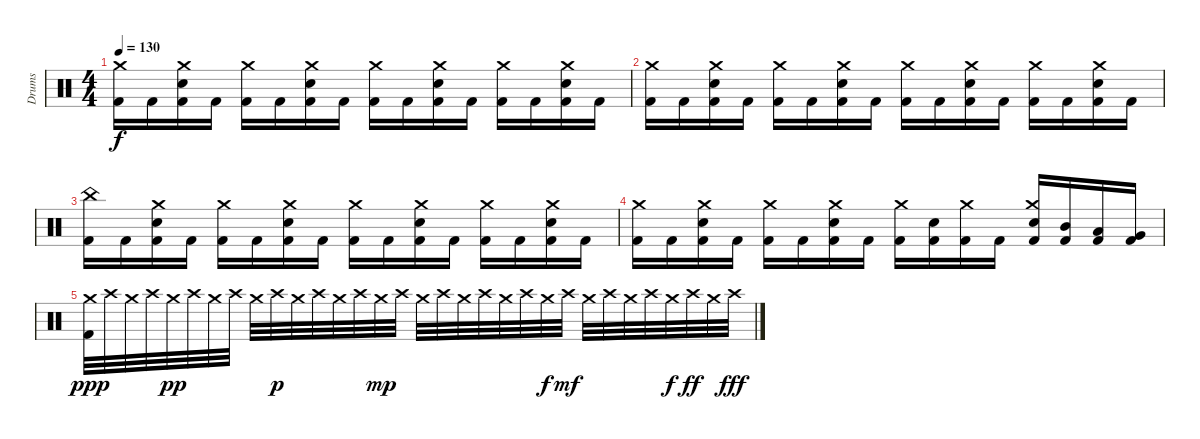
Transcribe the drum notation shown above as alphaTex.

\track ("Drums" "Drums") {instrument percussion}
\staff {score}
\articulation defaults
\ts (4 4)
\tempo 130
\clef neutral
\ks c
("Kick (hit) 2" "Crash medium (hit)").16{dy f} "Kick (hit) 2".16 ("Kick (hit) 2" "Snare (hit) 2" "Crash medium (hit)").16 "Kick (hit) 2".16 ("Kick (hit) 2" "Crash medium (hit)").16 "Kick (hit) 2".16 ("Kick (hit) 2" "Snare (hit) 2" "Crash medium (hit)").16 "Kick (hit) 2".16 ("Kick (hit) 2" "Crash medium (hit)").16 "Kick (hit) 2".16 ("Kick (hit) 2" "Snare (hit) 2" "Crash medium (hit)").16 "Kick (hit) 2".16 ("Kick (hit) 2" "Crash medium (hit)").16 "Kick (hit) 2".16 ("Kick (hit) 2" "Snare (hit) 2" "Crash medium (hit)").16 "Kick (hit) 2".16 |
("Kick (hit) 2" "Crash medium (hit)").16 "Kick (hit) 2".16 ("Kick (hit) 2" "Snare (hit) 2" "Crash medium (hit)").16 "Kick (hit) 2".16 ("Kick (hit) 2" "Crash medium (hit)").16 "Kick (hit) 2".16 ("Kick (hit) 2" "Snare (hit) 2" "Crash medium (hit)").16 "Kick (hit) 2".16 ("Kick (hit) 2" "Crash medium (hit)").16 "Kick (hit) 2".16 ("Kick (hit) 2" "Snare (hit) 2" "Crash medium (hit)").16 "Kick (hit) 2".16 ("Kick (hit) 2" "Crash medium (hit)").16 "Kick (hit) 2".16 ("Kick (hit) 2" "Snare (hit) 2" "Crash medium (hit)").16 "Kick (hit) 2".16 |
("Kick (hit) 2" "China (hit)").16 "Kick (hit) 2".16 ("Kick (hit) 2" "Snare (hit) 2" "Crash medium (hit)").16 "Kick (hit) 2".16 ("Kick (hit) 2" "Crash medium (hit)").16 "Kick (hit) 2".16 ("Kick (hit) 2" "Snare (hit) 2" "Crash medium (hit)").16 "Kick (hit) 2".16 ("Kick (hit) 2" "Crash medium (hit)").16 "Kick (hit) 2".16 ("Kick (hit) 2" "Snare (hit) 2" "Crash medium (hit)").16 "Kick (hit) 2".16 ("Kick (hit) 2" "Crash medium (hit)").16 "Kick (hit) 2".16 ("Kick (hit) 2" "Snare (hit) 2" "Crash medium (hit)").16 "Kick (hit) 2".16 |
("Kick (hit) 2" "Crash medium (hit)").16 "Kick (hit) 2".16 ("Kick (hit) 2" "Snare (hit) 2" "Crash medium (hit)").16 "Kick (hit) 2".16 ("Kick (hit) 2" "Crash medium (hit)").16 "Kick (hit) 2".16 ("Kick (hit) 2" "Snare (hit) 2" "Crash medium (hit)").16 "Kick (hit) 2".16 ("Kick (hit) 2" "Crash medium (hit)").16 ("Kick (hit) 2" "Snare (hit) 2").16 ("Kick (hit) 2" "Crash medium (hit)").16 "Kick (hit) 2".16 ("Kick (hit) 2" "Snare (hit) 2" "Crash medium (hit)").16 ("Kick (hit) 2" "Mid Tom (hit)").16 ("Kick (hit) 2" "Low Tom (hit)").16 ("Kick (hit) 2" "Very Low Tom (hit)").16 |
("Kick (hit) 2" "Crash medium (hit)").32{dy ppp} "Crash high (hit)".32 "Crash medium (hit)".32 "Crash high (hit)".32 "Crash medium (hit)".32{dy pp} "Crash high (hit)".32 "Crash medium (hit)".32 "Crash high (hit)".32 "Crash medium (hit)".32 "Crash high (hit)".32{dy p} "Crash medium (hit)".32 "Crash high (hit)".32 "Crash medium (hit)".32 "Crash high (hit)".32 "Crash medium (hit)".32{dy mp} "Crash high (hit)".32 "Crash medium (hit)".32 "Crash high (hit)".32 "Crash medium (hit)".32 "Crash high (hit)".32 "Crash medium (hit)".32 "Crash high (hit)".32 "Crash medium (hit)".32{dy f} "Crash high (hit)".32{dy mf} "Crash medium (hit)".32 "Crash high (hit)".32 "Crash medium (hit)".32 "Crash high (hit)".32 "Crash medium (hit)".32{dy f} "Crash high (hit)".32{dy ff} "Crash medium (hit)".32 "Crash high (hit)".32{dy fff}
